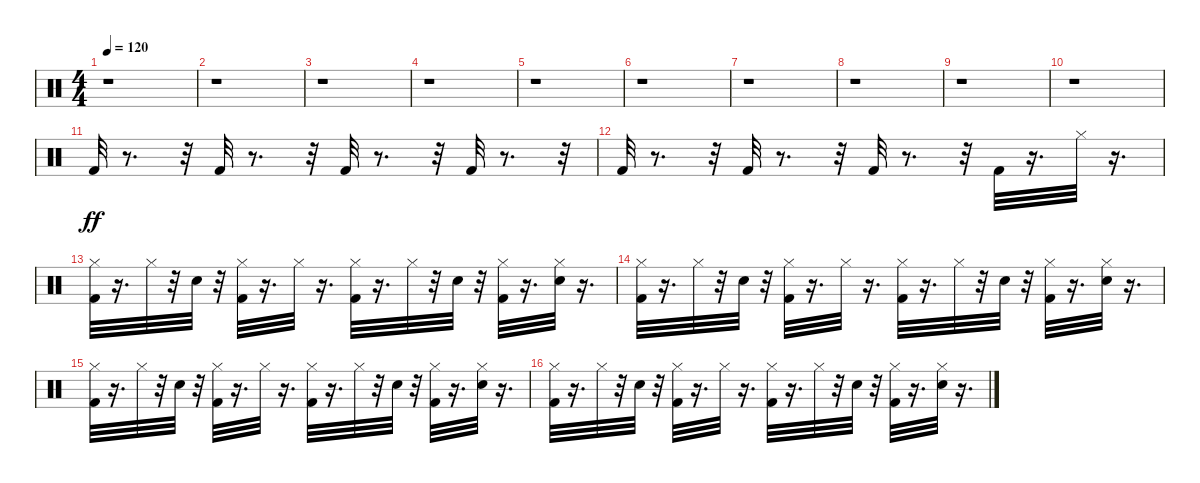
\track "" {instrument percussion}
\staff {score}
\articulation defaults
\ts (4 4)
\tempo 120
\clef neutral
\ks c
r.1{dy ff} |
r.1 |
r.1 |
r.1 |
r.1 |
r.1 |
r.1 |
r.1 |
r.1 |
r.1 |
"Kick (hit) 2".32 r.8{d} r.32 "Kick (hit) 2".32 r.8{d} r.32 "Kick (hit) 2".32 r.8{d} r.32 "Kick (hit) 2".32 r.8{d} r.32 |
"Kick (hit) 2".32 r.8{d} r.32 "Kick (hit) 2".32 r.8{d} r.32 "Kick (hit) 2".32 r.8{d} r.32 "Kick (hit) 2".32 r.16{d} "Hi-Hat (closed)".32 r.16{d} |
("Kick (hit) 2" "Hi-Hat (closed)").32 r.16{d} "Hi-Hat (closed)".32 r.32 "Snare (hit) 2".32 r.32 ("Kick (hit) 2" "Hi-Hat (closed)").32 r.16{d} "Hi-Hat (closed)".32 r.16{d} ("Kick (hit) 2" "Hi-Hat (closed)").32 r.16{d} "Hi-Hat (closed)".32 r.32 "Snare (hit) 2".32 r.32 ("Kick (hit) 2" "Hi-Hat (closed)").32 r.16{d} ("Snare (hit) 2" "Hi-Hat (closed)").32 r.16{d} |
("Kick (hit) 2" "Hi-Hat (closed)").32 r.16{d} "Hi-Hat (closed)".32 r.32 "Snare (hit) 2".32 r.32 ("Kick (hit) 2" "Hi-Hat (closed)").32 r.16{d} "Hi-Hat (closed)".32 r.16{d} ("Kick (hit) 2" "Hi-Hat (closed)").32 r.16{d} "Hi-Hat (closed)".32 r.32 "Snare (hit) 2".32 r.32 ("Kick (hit) 2" "Hi-Hat (closed)").32 r.16{d} ("Snare (hit) 2" "Hi-Hat (closed)").32 r.16{d} |
("Kick (hit) 2" "Hi-Hat (closed)").32 r.16{d} "Hi-Hat (closed)".32 r.32 "Snare (hit) 2".32 r.32 ("Kick (hit) 2" "Hi-Hat (closed)").32 r.16{d} "Hi-Hat (closed)".32 r.16{d} ("Kick (hit) 2" "Hi-Hat (closed)").32 r.16{d} "Hi-Hat (closed)".32 r.32 "Snare (hit) 2".32 r.32 ("Kick (hit) 2" "Hi-Hat (closed)").32 r.16{d} ("Snare (hit) 2" "Hi-Hat (closed)").32 r.16{d} |
("Kick (hit) 2" "Hi-Hat (closed)").32 r.16{d} "Hi-Hat (closed)".32 r.32 "Snare (hit) 2".32 r.32 ("Kick (hit) 2" "Hi-Hat (closed)").32 r.16{d} "Hi-Hat (closed)".32 r.16{d} ("Kick (hit) 2" "Hi-Hat (closed)").32 r.16{d} "Hi-Hat (closed)".32 r.32 "Snare (hit) 2".32 r.32 ("Kick (hit) 2" "Hi-Hat (closed)").32 r.16{d} ("Snare (hit) 2" "Hi-Hat (closed)").32 r.16{d}
